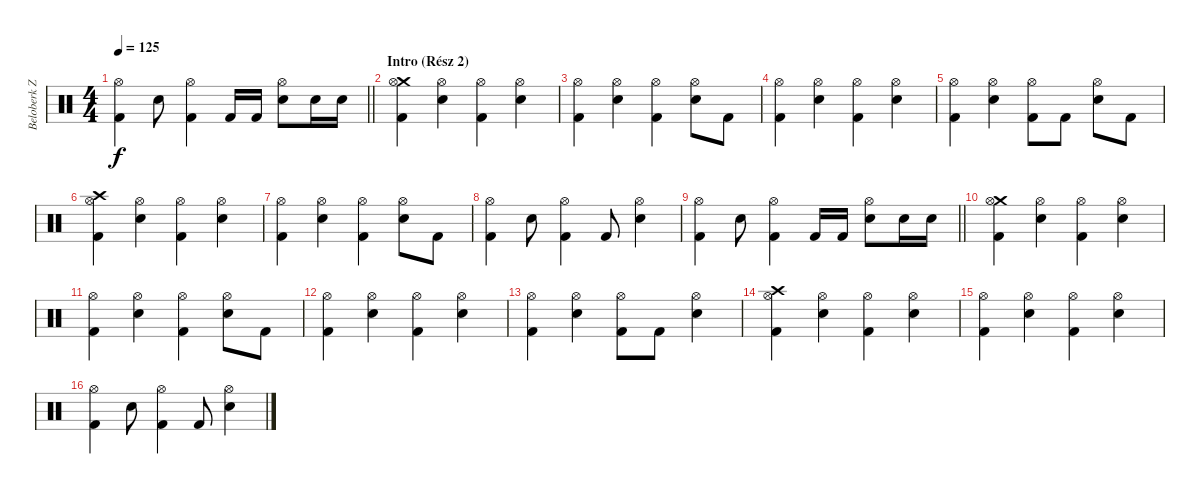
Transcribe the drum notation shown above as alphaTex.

\track ("Beloberk Zsolt - Dobok" "Beloberk Z") {instrument percussion}
\staff {score}
\articulation defaults
\ts (4 4)
\tempo 125
\clef neutral
\barLineRight lightlight
\ks c
("Hi-Hat (open)" "Kick (hit) 2").4{dy f} "Electric Snare (hit)".8 ("Hi-Hat (open)" "Kick (hit) 2").4 "Kick (hit) 2".16 "Kick (hit) 2".16 ("Hi-Hat (open)" "Electric Snare (hit)").8 "Electric Snare (hit)".16 "Electric Snare (hit)".16 |
\section ("" "Intro (Rész 2)")
("Crash medium (hit)" "Hi-Hat (open)" "Kick (hit) 2").4 ("Hi-Hat (open)" "Electric Snare (hit)").4 ("Hi-Hat (open)" "Kick (hit) 2").4 ("Hi-Hat (open)" "Electric Snare (hit)").4 |
("Hi-Hat (open)" "Kick (hit) 2").4 ("Hi-Hat (open)" "Electric Snare (hit)").4 ("Hi-Hat (open)" "Kick (hit) 2").4 ("Hi-Hat (open)" "Electric Snare (hit)").8 "Kick (hit) 2".8 |
("Hi-Hat (open)" "Kick (hit) 2").4 ("Hi-Hat (open)" "Electric Snare (hit)").4 ("Hi-Hat (open)" "Kick (hit) 2").4 ("Hi-Hat (open)" "Electric Snare (hit)").4 |
("Hi-Hat (open)" "Kick (hit) 2").4 ("Hi-Hat (open)" "Electric Snare (hit)").4 ("Hi-Hat (open)" "Kick (hit) 2").8 "Kick (hit) 2".8 ("Hi-Hat (open)" "Electric Snare (hit)").8 "Kick (hit) 2".8 |
("Crash high (hit)" "Hi-Hat (open)" "Kick (hit) 2").4 ("Hi-Hat (open)" "Electric Snare (hit)").4 ("Hi-Hat (open)" "Kick (hit) 2").4 ("Hi-Hat (open)" "Electric Snare (hit)").4 |
("Hi-Hat (open)" "Kick (hit) 2").4 ("Hi-Hat (open)" "Electric Snare (hit)").4 ("Hi-Hat (open)" "Kick (hit) 2").4 ("Hi-Hat (open)" "Electric Snare (hit)").8 "Kick (hit) 2".8 |
("Hi-Hat (open)" "Kick (hit) 2").4 "Electric Snare (hit)".8 ("Hi-Hat (open)" "Kick (hit) 2").4 "Kick (hit) 2".8 ("Hi-Hat (open)" "Electric Snare (hit)").4 |
\barLineRight lightlight
("Hi-Hat (open)" "Kick (hit) 2").4 "Electric Snare (hit)".8 ("Hi-Hat (open)" "Kick (hit) 2").4 "Kick (hit) 2".16 "Kick (hit) 2".16 ("Hi-Hat (open)" "Electric Snare (hit)").8 "Electric Snare (hit)".16 "Electric Snare (hit)".16 |
("Crash medium (hit)" "Hi-Hat (open)" "Kick (hit) 2").4 ("Hi-Hat (open)" "Electric Snare (hit)").4 ("Hi-Hat (open)" "Kick (hit) 2").4 ("Hi-Hat (open)" "Electric Snare (hit)").4 |
("Hi-Hat (open)" "Kick (hit) 2").4 ("Hi-Hat (open)" "Electric Snare (hit)").4 ("Hi-Hat (open)" "Kick (hit) 2").4 ("Hi-Hat (open)" "Electric Snare (hit)").8 "Kick (hit) 2".8 |
("Hi-Hat (open)" "Kick (hit) 2").4 ("Hi-Hat (open)" "Electric Snare (hit)").4 ("Hi-Hat (open)" "Kick (hit) 2").4 ("Hi-Hat (open)" "Electric Snare (hit)").4 |
("Hi-Hat (open)" "Kick (hit) 2").4 ("Hi-Hat (open)" "Electric Snare (hit)").4 ("Hi-Hat (open)" "Kick (hit) 2").8 "Kick (hit) 2".8 ("Hi-Hat (open)" "Electric Snare (hit)").4 |
("Crash high (hit)" "Hi-Hat (open)" "Kick (hit) 2").4 ("Hi-Hat (open)" "Electric Snare (hit)").4 ("Hi-Hat (open)" "Kick (hit) 2").4 ("Hi-Hat (open)" "Electric Snare (hit)").4 |
("Hi-Hat (open)" "Kick (hit) 2").4 ("Hi-Hat (open)" "Electric Snare (hit)").4 ("Hi-Hat (open)" "Kick (hit) 2").4 ("Hi-Hat (open)" "Electric Snare (hit)").4 |
("Hi-Hat (open)" "Kick (hit) 2").4 "Electric Snare (hit)".8 ("Hi-Hat (open)" "Kick (hit) 2").4 "Kick (hit) 2".8 ("Hi-Hat (open)" "Electric Snare (hit)").4
